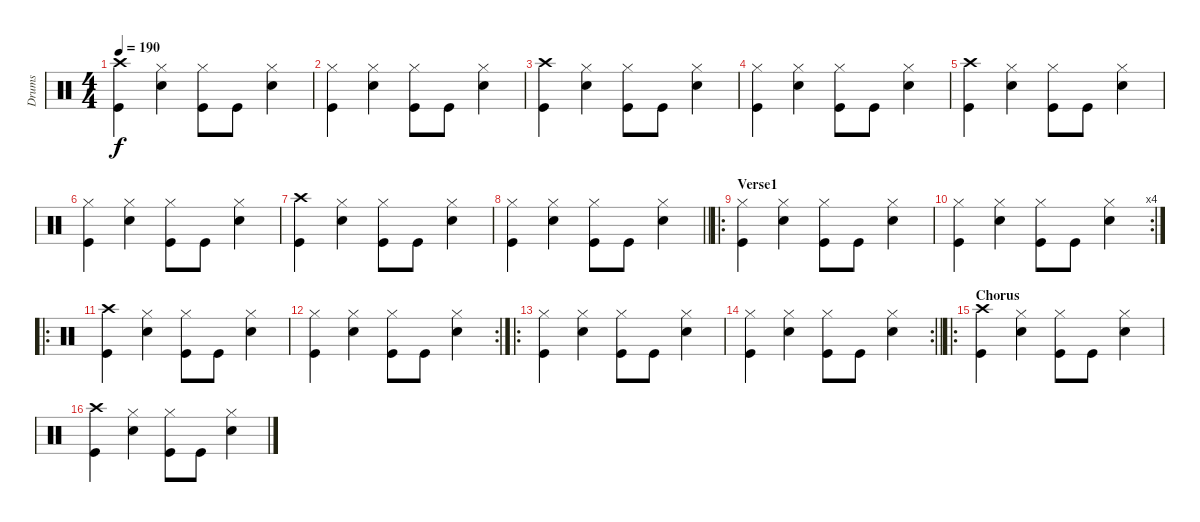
\track ("Drums" "Drums") {instrument percussion}
\staff {score}
\articulation defaults
\ts (4 4)
\tempo 190
\clef neutral
\ks c
("Crash high (hit)" "Kick (hit)").4{dy f} ("Hi-Hat (closed)" "Snare (hit) 2").4 ("Hi-Hat (closed)" "Kick (hit)").8 "Kick (hit)".8 ("Hi-Hat (closed)" "Snare (hit) 2").4 |
("Hi-Hat (closed)" "Kick (hit)").4 ("Hi-Hat (closed)" "Snare (hit) 2").4 ("Hi-Hat (closed)" "Kick (hit)").8 "Kick (hit)".8 ("Hi-Hat (closed)" "Snare (hit) 2").4 |
("Crash high (hit)" "Kick (hit)").4 ("Hi-Hat (closed)" "Snare (hit) 2").4 ("Hi-Hat (closed)" "Kick (hit)").8 "Kick (hit)".8 ("Hi-Hat (closed)" "Snare (hit) 2").4 |
("Hi-Hat (closed)" "Kick (hit)").4 ("Hi-Hat (closed)" "Snare (hit) 2").4 ("Hi-Hat (closed)" "Kick (hit)").8 "Kick (hit)".8 ("Hi-Hat (closed)" "Snare (hit) 2").4 |
("Crash high (hit)" "Kick (hit)").4 ("Hi-Hat (closed)" "Snare (hit) 2").4 ("Hi-Hat (closed)" "Kick (hit)").8 "Kick (hit)".8 ("Hi-Hat (closed)" "Snare (hit) 2").4 |
("Hi-Hat (closed)" "Kick (hit)").4 ("Hi-Hat (closed)" "Snare (hit) 2").4 ("Hi-Hat (closed)" "Kick (hit)").8 "Kick (hit)".8 ("Hi-Hat (closed)" "Snare (hit) 2").4 |
("Crash high (hit)" "Kick (hit)").4 ("Hi-Hat (closed)" "Snare (hit) 2").4 ("Hi-Hat (closed)" "Kick (hit)").8 "Kick (hit)".8 ("Hi-Hat (closed)" "Snare (hit) 2").4 |
\barLineRight lightlight
("Hi-Hat (closed)" "Kick (hit)").4 ("Hi-Hat (closed)" "Snare (hit) 2").4 ("Hi-Hat (closed)" "Kick (hit)").8 "Kick (hit)".8 ("Hi-Hat (closed)" "Snare (hit) 2").4 |
\ro
\section ("" "Verse1")
("Hi-Hat (closed)" "Kick (hit)").4 ("Hi-Hat (closed)" "Snare (hit) 2").4 ("Hi-Hat (closed)" "Kick (hit)").8 "Kick (hit)".8 ("Hi-Hat (closed)" "Snare (hit) 2").4 |
\rc 4
("Hi-Hat (closed)" "Kick (hit)").4 ("Hi-Hat (closed)" "Snare (hit) 2").4 ("Hi-Hat (closed)" "Kick (hit)").8 "Kick (hit)".8 ("Hi-Hat (closed)" "Snare (hit) 2").4 |
\ro
("Crash high (hit)" "Kick (hit)").4 ("Hi-Hat (closed)" "Snare (hit) 2").4 ("Hi-Hat (closed)" "Kick (hit)").8 "Kick (hit)".8 ("Hi-Hat (closed)" "Snare (hit) 2").4 |
\rc 2
("Hi-Hat (closed)" "Kick (hit)").4 ("Hi-Hat (closed)" "Snare (hit) 2").4 ("Hi-Hat (closed)" "Kick (hit)").8 "Kick (hit)".8 ("Hi-Hat (closed)" "Snare (hit) 2").4 |
\ro
("Hi-Hat (closed)" "Kick (hit)").4 ("Hi-Hat (closed)" "Snare (hit) 2").4 ("Hi-Hat (closed)" "Kick (hit)").8 "Kick (hit)".8 ("Hi-Hat (closed)" "Snare (hit) 2").4 |
\rc 2
\barLineRight lightlight
("Hi-Hat (closed)" "Kick (hit)").4 ("Hi-Hat (closed)" "Snare (hit) 2").4 ("Hi-Hat (closed)" "Kick (hit)").8 "Kick (hit)".8 ("Hi-Hat (closed)" "Snare (hit) 2").4 |
\ro
\section ("" "Chorus")
("Crash high (hit)" "Kick (hit)").4 ("Hi-Hat (closed)" "Snare (hit) 2").4 ("Hi-Hat (closed)" "Kick (hit)").8 "Kick (hit)".8 ("Hi-Hat (closed)" "Snare (hit) 2").4 |
("Crash high (hit)" "Kick (hit)").4 ("Hi-Hat (closed)" "Snare (hit) 2").4 ("Hi-Hat (closed)" "Kick (hit)").8 "Kick (hit)".8 ("Hi-Hat (closed)" "Snare (hit) 2").4
